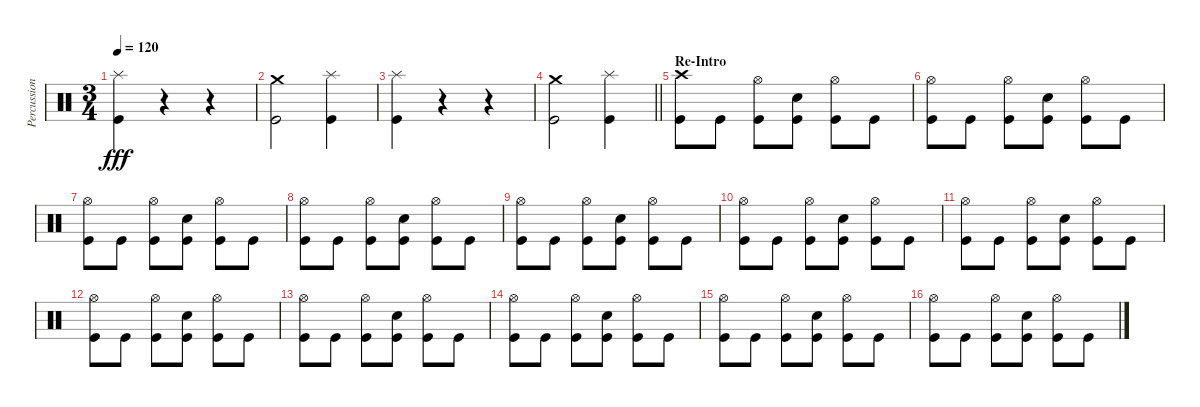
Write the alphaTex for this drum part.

\track ("Percussion" "Percussion") {instrument percussion}
\staff {score}
\articulation defaults
\ts (3 4)
\tempo 120
\clef neutral
\ks c
("Splash (hit)" "Kick (hit)").4{dy fff} r.4 r.4 |
("Crash medium (hit)" "Kick (hit)").2 ("Splash (hit)" "Kick (hit)").4 |
("Splash (hit)" "Kick (hit)").4 r.4 r.4 |
\barLineRight lightlight
("Crash medium (hit)" "Kick (hit)").2 ("Splash (hit)" "Kick (hit)").4 |
\section ("" "Re-Intro")
("Crash high (hit)" "Kick (hit)").8 "Kick (hit)".8 ("Hi-Hat (open)" "Kick (hit)").8 ("Electric Snare (hit)" "Kick (hit)").8 ("Hi-Hat (open)" "Kick (hit)").8 "Kick (hit)".8 |
("Hi-Hat (open)" "Kick (hit)").8 "Kick (hit)".8 ("Hi-Hat (open)" "Kick (hit)").8 ("Electric Snare (hit)" "Kick (hit)").8 ("Hi-Hat (open)" "Kick (hit)").8 "Kick (hit)".8 |
("Hi-Hat (open)" "Kick (hit)").8 "Kick (hit)".8 ("Hi-Hat (open)" "Kick (hit)").8 ("Electric Snare (hit)" "Kick (hit)").8 ("Hi-Hat (open)" "Kick (hit)").8 "Kick (hit)".8 |
("Hi-Hat (open)" "Kick (hit)").8 "Kick (hit)".8 ("Hi-Hat (open)" "Kick (hit)").8 ("Electric Snare (hit)" "Kick (hit)").8 ("Hi-Hat (open)" "Kick (hit)").8 "Kick (hit)".8 |
("Hi-Hat (open)" "Kick (hit)").8 "Kick (hit)".8 ("Hi-Hat (open)" "Kick (hit)").8 ("Electric Snare (hit)" "Kick (hit)").8 ("Hi-Hat (open)" "Kick (hit)").8 "Kick (hit)".8 |
("Hi-Hat (open)" "Kick (hit)").8 "Kick (hit)".8 ("Hi-Hat (open)" "Kick (hit)").8 ("Electric Snare (hit)" "Kick (hit)").8 ("Hi-Hat (open)" "Kick (hit)").8 "Kick (hit)".8 |
("Hi-Hat (open)" "Kick (hit)").8 "Kick (hit)".8 ("Hi-Hat (open)" "Kick (hit)").8 ("Electric Snare (hit)" "Kick (hit)").8 ("Hi-Hat (open)" "Kick (hit)").8 "Kick (hit)".8 |
("Hi-Hat (open)" "Kick (hit)").8 "Kick (hit)".8 ("Hi-Hat (open)" "Kick (hit)").8 ("Electric Snare (hit)" "Kick (hit)").8 ("Hi-Hat (open)" "Kick (hit)").8 "Kick (hit)".8 |
("Hi-Hat (open)" "Kick (hit)").8 "Kick (hit)".8 ("Hi-Hat (open)" "Kick (hit)").8 ("Electric Snare (hit)" "Kick (hit)").8 ("Hi-Hat (open)" "Kick (hit)").8 "Kick (hit)".8 |
("Hi-Hat (open)" "Kick (hit)").8 "Kick (hit)".8 ("Hi-Hat (open)" "Kick (hit)").8 ("Electric Snare (hit)" "Kick (hit)").8 ("Hi-Hat (open)" "Kick (hit)").8 "Kick (hit)".8 |
("Hi-Hat (open)" "Kick (hit)").8 "Kick (hit)".8 ("Hi-Hat (open)" "Kick (hit)").8 ("Electric Snare (hit)" "Kick (hit)").8 ("Hi-Hat (open)" "Kick (hit)").8 "Kick (hit)".8 |
("Hi-Hat (open)" "Kick (hit)").8 "Kick (hit)".8 ("Hi-Hat (open)" "Kick (hit)").8 ("Electric Snare (hit)" "Kick (hit)").8 ("Hi-Hat (open)" "Kick (hit)").8 "Kick (hit)".8
